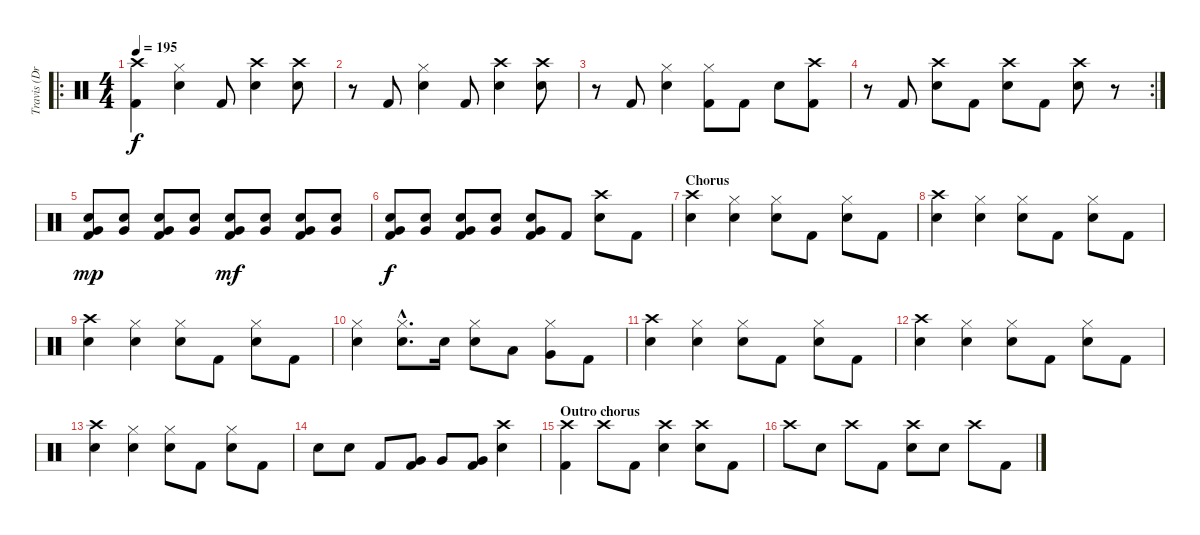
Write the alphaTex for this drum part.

\track ("Travis (Drums)" "Travis (Dr") {instrument percussion}
\staff {score}
\articulation defaults
\ro
\ts (4 4)
\tempo 195
\clef neutral
\ks c
("Crash high (hit)" "Kick (hit) 2").4{dy f} ("Hi-Hat (closed)" "Electric Snare (hit)").4 "Kick (hit) 2".8 ("Crash high (hit)" "Electric Snare (hit)").4 ("Crash high (hit)" "Electric Snare (hit)").8 |
r.8 "Kick (hit) 2".8 ("Hi-Hat (closed)" "Electric Snare (hit)").4 "Kick (hit) 2".8 ("Crash high (hit)" "Electric Snare (hit)").4 ("Crash high (hit)" "Electric Snare (hit)").8 |
r.8 "Kick (hit) 2".8 ("Hi-Hat (closed)" "Electric Snare (hit)").4 ("Hi-Hat (closed)" "Kick (hit) 2").8 "Kick (hit) 2".8 "Electric Snare (hit)".8 ("Crash high (hit)" "Kick (hit) 2").8 |
\rc 2
r.8 "Kick (hit) 2".8 ("Crash high (hit)" "Electric Snare (hit)").8 "Kick (hit) 2".8 ("Crash high (hit)" "Electric Snare (hit)").8 "Kick (hit) 2".8 ("Crash high (hit)" "Electric Snare (hit)").8 r.8 |
("Very Low Tom (hit)" "Electric Snare (hit)" "Kick (hit) 2").8{dy mp} ("Very Low Tom (hit)" "Electric Snare (hit)").8 ("Very Low Tom (hit)" "Electric Snare (hit)" "Kick (hit) 2").8 ("Very Low Tom (hit)" "Electric Snare (hit)").8 ("Very Low Tom (hit)" "Electric Snare (hit)" "Kick (hit) 2").8{dy mf} ("Very Low Tom (hit)" "Electric Snare (hit)").8 ("Very Low Tom (hit)" "Electric Snare (hit)" "Kick (hit) 2").8 ("Very Low Tom (hit)" "Electric Snare (hit)").8 |
("Very Low Tom (hit)" "Electric Snare (hit)" "Kick (hit) 2").8{dy f} ("Very Low Tom (hit)" "Electric Snare (hit)").8 ("Very Low Tom (hit)" "Electric Snare (hit)" "Kick (hit) 2").8 ("Very Low Tom (hit)" "Electric Snare (hit)").8 ("Very Low Tom (hit)" "Electric Snare (hit)" "Kick (hit) 2").8 "Kick (hit) 2".8 ("Crash high (hit)" "Electric Snare (hit)").8 "Kick (hit) 2".8 |
\section ("" "Chorus")
("Crash high (hit)" "Electric Snare (hit)").4 ("Hi-Hat (closed)" "Electric Snare (hit)").4 ("Hi-Hat (closed)" "Electric Snare (hit)").8 "Kick (hit) 2".8 ("Hi-Hat (closed)" "Electric Snare (hit)").8 "Kick (hit) 2".8 |
("Crash high (hit)" "Electric Snare (hit)").4 ("Hi-Hat (closed)" "Electric Snare (hit)").4 ("Hi-Hat (closed)" "Electric Snare (hit)").8 "Kick (hit) 2".8 ("Hi-Hat (closed)" "Electric Snare (hit)").8 "Kick (hit) 2".8 |
("Crash high (hit)" "Electric Snare (hit)").4 ("Hi-Hat (closed)" "Electric Snare (hit)").4 ("Hi-Hat (closed)" "Electric Snare (hit)").8 "Kick (hit) 2".8 ("Hi-Hat (closed)" "Electric Snare (hit)").8 "Kick (hit) 2".8 |
("Hi-Hat (closed)" "Electric Snare (hit)").4 ("Hi-Hat (closed)"{hac} "Electric Snare (hit)"{hac}).8{d} "Electric Snare (hit)".16 ("Hi-Hat (closed)" "Electric Snare (hit)").8 "Low Tom (hit)".8 ("Very Low Tom (hit)" "Hi-Hat (closed)").8 "Kick (hit) 2".8 |
("Crash high (hit)" "Electric Snare (hit)").4 ("Hi-Hat (closed)" "Electric Snare (hit)").4 ("Hi-Hat (closed)" "Electric Snare (hit)").8 "Kick (hit) 2".8 ("Hi-Hat (closed)" "Electric Snare (hit)").8 "Kick (hit) 2".8 |
("Crash high (hit)" "Electric Snare (hit)").4 ("Hi-Hat (closed)" "Electric Snare (hit)").4 ("Hi-Hat (closed)" "Electric Snare (hit)").8 "Kick (hit) 2".8 ("Hi-Hat (closed)" "Electric Snare (hit)").8 "Kick (hit) 2".8 |
("Crash high (hit)" "Electric Snare (hit)").4 ("Hi-Hat (closed)" "Electric Snare (hit)").4 ("Hi-Hat (closed)" "Electric Snare (hit)").8 "Kick (hit) 2".8 ("Hi-Hat (closed)" "Electric Snare (hit)").8 "Kick (hit) 2".8 |
"Electric Snare (hit)".8 "Electric Snare (hit)".8 "Kick (hit) 2".8 ("Very Low Tom (hit)" "Kick (hit) 2").8 "Very Low Tom (hit)".8 ("Very Low Tom (hit)" "Kick (hit) 2").8 ("Crash high (hit)" "Electric Snare (hit)").4 |
\section ("" "Outro chorus")
("Crash high (hit)" "Kick (hit) 2").4 "Crash high (hit)".8 "Kick (hit) 2".8 ("Crash high (hit)" "Electric Snare (hit)").4 ("Crash high (hit)" "Electric Snare (hit)").8 "Kick (hit) 2".8 |
"Crash high (hit)".8 "Electric Snare (hit)".8 "Crash high (hit)".8 "Kick (hit) 2".8 ("Crash high (hit)" "Electric Snare (hit)").8 "Electric Snare (hit)".8 "Crash high (hit)".8 "Kick (hit) 2".8
